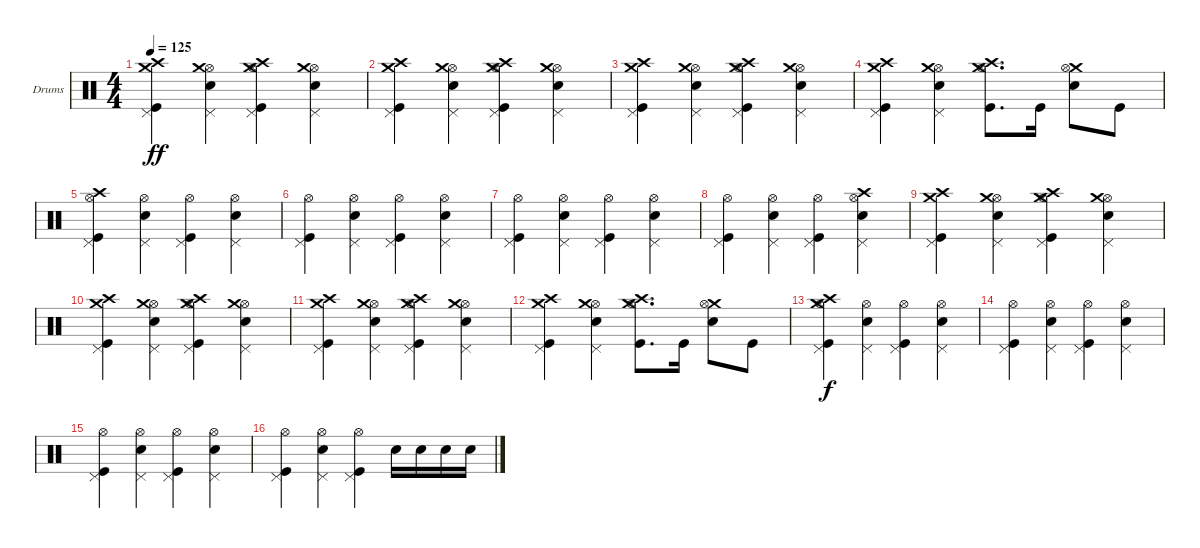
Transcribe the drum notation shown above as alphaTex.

\defaultSystemsLayout 4
\bracketExtendMode groupsimilarinstruments
\firstSystemTrackNameOrientation horizontal
\otherSystemsTrackNameOrientation horizontal
\track ("Drums" "Drums") {instrument percussion}
\staff {score}
\articulation defaults
\ts (4 4)
\tempo 125
\clef neutral
\ks c
("Kick (hit)" "Pedal Hi-Hat (hit)" "Crash medium (hit)" "Crash high (hit)").4{dy ff} ("Snare (hit) 2" "Pedal Hi-Hat (hit)" "Hi-Hat (open)" "Crash medium (hit)").4 ("Kick (hit)" "Pedal Hi-Hat (hit)" "Hi-Hat (open)" "Crash high (hit)" "Crash medium (hit)").4 ("Snare (hit) 2" "Pedal Hi-Hat (hit)" "Hi-Hat (open)" "Crash medium (hit)").4 |
("Kick (hit)" "Pedal Hi-Hat (hit)" "Crash medium (hit)" "Crash high (hit)").4 ("Snare (hit) 2" "Pedal Hi-Hat (hit)" "Hi-Hat (open)" "Crash medium (hit)").4 ("Kick (hit)" "Pedal Hi-Hat (hit)" "Hi-Hat (open)" "Crash high (hit)" "Crash medium (hit)").4 ("Snare (hit) 2" "Pedal Hi-Hat (hit)" "Hi-Hat (open)" "Crash medium (hit)").4 |
("Kick (hit)" "Pedal Hi-Hat (hit)" "Crash medium (hit)" "Crash high (hit)").4 ("Snare (hit) 2" "Pedal Hi-Hat (hit)" "Hi-Hat (open)" "Crash medium (hit)").4 ("Kick (hit)" "Pedal Hi-Hat (hit)" "Hi-Hat (open)" "Crash high (hit)" "Crash medium (hit)").4 ("Snare (hit) 2" "Pedal Hi-Hat (hit)" "Hi-Hat (open)" "Crash medium (hit)").4 |
("Kick (hit)" "Pedal Hi-Hat (hit)" "Crash medium (hit)" "Crash high (hit)").4 ("Snare (hit) 2" "Pedal Hi-Hat (hit)" "Hi-Hat (open)" "Crash medium (hit)").4 ("Kick (hit)" "Hi-Hat (open)" "Crash medium (hit)" "Crash high (hit)").8{d} "Kick (hit)".16 ("Snare (hit) 2" "Crash medium (hit)" "Hi-Hat (open)").8 "Kick (hit)".8 |
("Kick (hit)" "Pedal Hi-Hat (hit)" "Hi-Hat (open)" "Crash high (hit)").4 ("Snare (hit) 2" "Pedal Hi-Hat (hit)" "Hi-Hat (open)").4 ("Kick (hit)" "Pedal Hi-Hat (hit)" "Hi-Hat (open)").4 ("Snare (hit) 2" "Pedal Hi-Hat (hit)" "Hi-Hat (open)").4 |
("Kick (hit)" "Pedal Hi-Hat (hit)" "Hi-Hat (open)").4 ("Snare (hit) 2" "Pedal Hi-Hat (hit)" "Hi-Hat (open)").4 ("Kick (hit)" "Pedal Hi-Hat (hit)" "Hi-Hat (open)").4 ("Snare (hit) 2" "Pedal Hi-Hat (hit)" "Hi-Hat (open)").4 |
("Kick (hit)" "Pedal Hi-Hat (hit)" "Hi-Hat (open)").4 ("Snare (hit) 2" "Pedal Hi-Hat (hit)" "Hi-Hat (open)").4 ("Kick (hit)" "Pedal Hi-Hat (hit)" "Hi-Hat (open)").4 ("Snare (hit) 2" "Pedal Hi-Hat (hit)" "Hi-Hat (open)").4 |
("Kick (hit)" "Pedal Hi-Hat (hit)" "Hi-Hat (open)").4 ("Snare (hit) 2" "Pedal Hi-Hat (hit)" "Hi-Hat (open)").4 ("Kick (hit)" "Pedal Hi-Hat (hit)" "Hi-Hat (open)").4 ("Snare (hit) 2" "Pedal Hi-Hat (hit)" "Hi-Hat (open)" "Crash high (hit)").4 |
("Kick (hit)" "Pedal Hi-Hat (hit)" "Crash medium (hit)" "Crash high (hit)").4 ("Snare (hit) 2" "Pedal Hi-Hat (hit)" "Hi-Hat (open)" "Crash medium (hit)").4 ("Kick (hit)" "Pedal Hi-Hat (hit)" "Hi-Hat (open)" "Crash high (hit)" "Crash medium (hit)").4 ("Snare (hit) 2" "Pedal Hi-Hat (hit)" "Hi-Hat (open)" "Crash medium (hit)").4 |
("Kick (hit)" "Pedal Hi-Hat (hit)" "Crash medium (hit)" "Crash high (hit)").4 ("Snare (hit) 2" "Pedal Hi-Hat (hit)" "Hi-Hat (open)" "Crash medium (hit)").4 ("Kick (hit)" "Pedal Hi-Hat (hit)" "Hi-Hat (open)" "Crash high (hit)" "Crash medium (hit)").4 ("Snare (hit) 2" "Pedal Hi-Hat (hit)" "Hi-Hat (open)" "Crash medium (hit)").4 |
("Kick (hit)" "Pedal Hi-Hat (hit)" "Crash medium (hit)" "Crash high (hit)").4 ("Snare (hit) 2" "Pedal Hi-Hat (hit)" "Hi-Hat (open)" "Crash medium (hit)").4 ("Kick (hit)" "Pedal Hi-Hat (hit)" "Hi-Hat (open)" "Crash high (hit)" "Crash medium (hit)").4 ("Snare (hit) 2" "Pedal Hi-Hat (hit)" "Hi-Hat (open)" "Crash medium (hit)").4 |
("Kick (hit)" "Pedal Hi-Hat (hit)" "Crash medium (hit)" "Crash high (hit)").4 ("Snare (hit) 2" "Pedal Hi-Hat (hit)" "Hi-Hat (open)" "Crash medium (hit)").4 ("Kick (hit)" "Hi-Hat (open)" "Crash medium (hit)" "Crash high (hit)").8{d} "Kick (hit)".16 ("Snare (hit) 2" "Crash medium (hit)" "Hi-Hat (open)").8 "Kick (hit)".8 |
("Kick (hit)" "Pedal Hi-Hat (hit)" "Hi-Hat (open)" "Crash high (hit)" "Crash medium (hit)").4{dy f} ("Snare (hit) 2" "Pedal Hi-Hat (hit)" "Hi-Hat (open)").4 ("Kick (hit)" "Pedal Hi-Hat (hit)" "Hi-Hat (open)").4 ("Snare (hit) 2" "Pedal Hi-Hat (hit)" "Hi-Hat (open)").4 |
("Kick (hit)" "Pedal Hi-Hat (hit)" "Hi-Hat (open)").4 ("Snare (hit) 2" "Pedal Hi-Hat (hit)" "Hi-Hat (open)").4 ("Kick (hit)" "Pedal Hi-Hat (hit)" "Hi-Hat (open)").4 ("Snare (hit) 2" "Pedal Hi-Hat (hit)" "Hi-Hat (open)").4 |
("Kick (hit)" "Pedal Hi-Hat (hit)" "Hi-Hat (open)").4 ("Snare (hit) 2" "Pedal Hi-Hat (hit)" "Hi-Hat (open)").4 ("Kick (hit)" "Pedal Hi-Hat (hit)" "Hi-Hat (open)").4 ("Snare (hit) 2" "Pedal Hi-Hat (hit)" "Hi-Hat (open)").4 |
("Kick (hit)" "Pedal Hi-Hat (hit)" "Hi-Hat (open)").4 ("Snare (hit) 2" "Pedal Hi-Hat (hit)" "Hi-Hat (open)").4 ("Kick (hit)" "Pedal Hi-Hat (hit)" "Hi-Hat (open)").4 "Snare (hit) 2".16 "Snare (hit) 2".16 "Snare (hit) 2".16 "Snare (hit) 2".16
